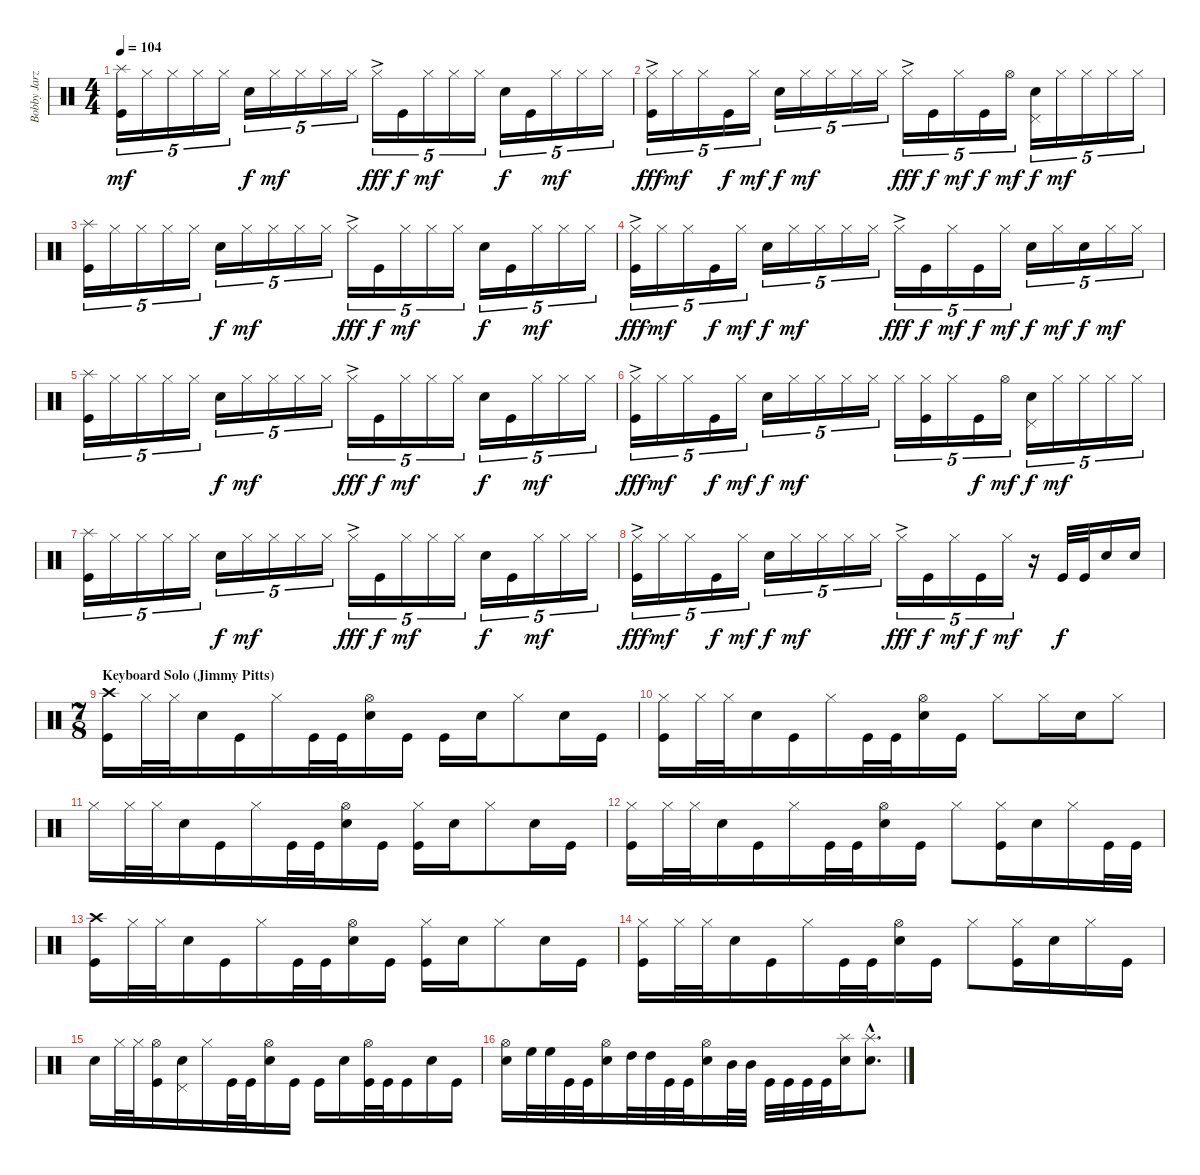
\track ("Bobby Jarzombek" "Bobby Jarz") {instrument percussion}
\staff {score}
\articulation defaults
\ts (4 4)
\tempo 104
\clef neutral
\ks c
("Splash (hit)" "Kick (hit)").16{tu (5 4) dy mf} "Hi-Hat (closed)".16{tu (5 4)} "Hi-Hat (closed)".16{tu (5 4)} "Hi-Hat (closed)".16{tu (5 4)} "Hi-Hat (closed)".16{tu (5 4)} "Electric Snare (hit)".16{tu (5 4) dy f} "Hi-Hat (closed)".16{tu (5 4) dy mf} "Hi-Hat (closed)".16{tu (5 4)} "Hi-Hat (closed)".16{tu (5 4)} "Hi-Hat (closed)".16{tu (5 4)} "Hi-Hat (closed)"{ac}.16{tu (5 4) dy fff} "Kick (hit)".16{tu (5 4) dy f} "Hi-Hat (closed)".16{tu (5 4) dy mf} "Hi-Hat (closed)".16{tu (5 4)} "Hi-Hat (closed)".16{tu (5 4)} "Electric Snare (hit)".16{tu (5 4) dy f} "Kick (hit)".16{tu (5 4)} "Hi-Hat (closed)".16{tu (5 4) dy mf} "Hi-Hat (closed)".16{tu (5 4)} "Hi-Hat (closed)".16{tu (5 4)} |
("Hi-Hat (closed)"{ac} "Kick (hit)").16{tu (5 4) dy fff} "Hi-Hat (closed)".16{tu (5 4) dy mf} "Hi-Hat (closed)".16{tu (5 4)} "Kick (hit)".16{tu (5 4) dy f} "Hi-Hat (closed)".16{tu (5 4) dy mf} "Electric Snare (hit)".16{tu (5 4) dy f} "Hi-Hat (closed)".16{tu (5 4) dy mf} "Hi-Hat (closed)".16{tu (5 4)} "Hi-Hat (closed)".16{tu (5 4)} "Hi-Hat (closed)".16{tu (5 4)} "Hi-Hat (closed)"{ac}.16{tu (5 4) dy fff} "Kick (hit)".16{tu (5 4) dy f} "Hi-Hat (closed)".16{tu (5 4) dy mf} "Kick (hit)".16{tu (5 4) dy f} "Hi-Hat (open)".16{tu (5 4) dy mf} ("Electric Snare (hit)" "Pedal Hi-Hat (hit)").16{tu (5 4) dy f} "Hi-Hat (closed)".16{tu (5 4) dy mf} "Hi-Hat (closed)".16{tu (5 4)} "Hi-Hat (closed)".16{tu (5 4)} "Hi-Hat (closed)".16{tu (5 4)} |
("Splash (hit)" "Kick (hit)").16{tu (5 4)} "Hi-Hat (closed)".16{tu (5 4)} "Hi-Hat (closed)".16{tu (5 4)} "Hi-Hat (closed)".16{tu (5 4)} "Hi-Hat (closed)".16{tu (5 4)} "Electric Snare (hit)".16{tu (5 4) dy f} "Hi-Hat (closed)".16{tu (5 4) dy mf} "Hi-Hat (closed)".16{tu (5 4)} "Hi-Hat (closed)".16{tu (5 4)} "Hi-Hat (closed)".16{tu (5 4)} "Hi-Hat (closed)"{ac}.16{tu (5 4) dy fff} "Kick (hit)".16{tu (5 4) dy f} "Hi-Hat (closed)".16{tu (5 4) dy mf} "Hi-Hat (closed)".16{tu (5 4)} "Hi-Hat (closed)".16{tu (5 4)} "Electric Snare (hit)".16{tu (5 4) dy f} "Kick (hit)".16{tu (5 4)} "Hi-Hat (closed)".16{tu (5 4) dy mf} "Hi-Hat (closed)".16{tu (5 4)} "Hi-Hat (closed)".16{tu (5 4)} |
("Hi-Hat (closed)"{ac} "Kick (hit)").16{tu (5 4) dy fff} "Hi-Hat (closed)".16{tu (5 4) dy mf} "Hi-Hat (closed)".16{tu (5 4)} "Kick (hit)".16{tu (5 4) dy f} "Hi-Hat (closed)".16{tu (5 4) dy mf} "Electric Snare (hit)".16{tu (5 4) dy f} "Hi-Hat (closed)".16{tu (5 4) dy mf} "Hi-Hat (closed)".16{tu (5 4)} "Hi-Hat (closed)".16{tu (5 4)} "Hi-Hat (closed)".16{tu (5 4)} "Hi-Hat (closed)"{ac}.16{tu (5 4) dy fff} "Kick (hit)".16{tu (5 4) dy f} "Hi-Hat (closed)".16{tu (5 4) dy mf} "Kick (hit)".16{tu (5 4) dy f} "Hi-Hat (closed)".16{tu (5 4) dy mf} "Electric Snare (hit)".16{tu (5 4) dy f} "Hi-Hat (closed)".16{tu (5 4) dy mf} "Electric Snare (hit)".16{tu (5 4) dy f} "Hi-Hat (closed)".16{tu (5 4) dy mf} "Hi-Hat (closed)".16{tu (5 4)} |
("Splash (hit)" "Kick (hit)").16{tu (5 4)} "Hi-Hat (closed)".16{tu (5 4)} "Hi-Hat (closed)".16{tu (5 4)} "Hi-Hat (closed)".16{tu (5 4)} "Hi-Hat (closed)".16{tu (5 4)} "Electric Snare (hit)".16{tu (5 4) dy f} "Hi-Hat (closed)".16{tu (5 4) dy mf} "Hi-Hat (closed)".16{tu (5 4)} "Hi-Hat (closed)".16{tu (5 4)} "Hi-Hat (closed)".16{tu (5 4)} "Hi-Hat (closed)"{ac}.16{tu (5 4) dy fff} "Kick (hit)".16{tu (5 4) dy f} "Hi-Hat (closed)".16{tu (5 4) dy mf} "Hi-Hat (closed)".16{tu (5 4)} "Hi-Hat (closed)".16{tu (5 4)} "Electric Snare (hit)".16{tu (5 4) dy f} "Kick (hit)".16{tu (5 4)} "Hi-Hat (closed)".16{tu (5 4) dy mf} "Hi-Hat (closed)".16{tu (5 4)} "Hi-Hat (closed)".16{tu (5 4)} |
("Hi-Hat (closed)"{ac} "Kick (hit)").16{tu (5 4) dy fff} "Hi-Hat (closed)".16{tu (5 4) dy mf} "Hi-Hat (closed)".16{tu (5 4)} "Kick (hit)".16{tu (5 4) dy f} "Hi-Hat (closed)".16{tu (5 4) dy mf} "Electric Snare (hit)".16{tu (5 4) dy f} "Hi-Hat (closed)".16{tu (5 4) dy mf} "Hi-Hat (closed)".16{tu (5 4)} "Hi-Hat (closed)".16{tu (5 4)} "Hi-Hat (closed)".16{tu (5 4)} "Hi-Hat (closed)".16{tu (5 4)} ("Hi-Hat (closed)" "Kick (hit)").16{tu (5 4)} "Hi-Hat (closed)".16{tu (5 4)} "Kick (hit)".16{tu (5 4) dy f} "Hi-Hat (open)".16{tu (5 4) dy mf} ("Electric Snare (hit)" "Pedal Hi-Hat (hit)").16{tu (5 4) dy f} "Hi-Hat (closed)".16{tu (5 4) dy mf} "Hi-Hat (closed)".16{tu (5 4)} "Hi-Hat (closed)".16{tu (5 4)} "Hi-Hat (closed)".16{tu (5 4)} |
("Splash (hit)" "Kick (hit)").16{tu (5 4)} "Hi-Hat (closed)".16{tu (5 4)} "Hi-Hat (closed)".16{tu (5 4)} "Hi-Hat (closed)".16{tu (5 4)} "Hi-Hat (closed)".16{tu (5 4)} "Electric Snare (hit)".16{tu (5 4) dy f} "Hi-Hat (closed)".16{tu (5 4) dy mf} "Hi-Hat (closed)".16{tu (5 4)} "Hi-Hat (closed)".16{tu (5 4)} "Hi-Hat (closed)".16{tu (5 4)} "Hi-Hat (closed)"{ac}.16{tu (5 4) dy fff} "Kick (hit)".16{tu (5 4) dy f} "Hi-Hat (closed)".16{tu (5 4) dy mf} "Hi-Hat (closed)".16{tu (5 4)} "Hi-Hat (closed)".16{tu (5 4)} "Electric Snare (hit)".16{tu (5 4) dy f} "Kick (hit)".16{tu (5 4)} "Hi-Hat (closed)".16{tu (5 4) dy mf} "Hi-Hat (closed)".16{tu (5 4)} "Hi-Hat (closed)".16{tu (5 4)} |
("Hi-Hat (closed)"{ac} "Kick (hit)").16{tu (5 4) dy fff} "Hi-Hat (closed)".16{tu (5 4) dy mf} "Hi-Hat (closed)".16{tu (5 4)} "Kick (hit)".16{tu (5 4) dy f} "Hi-Hat (closed)".16{tu (5 4) dy mf} "Electric Snare (hit)".16{tu (5 4) dy f} "Hi-Hat (closed)".16{tu (5 4) dy mf} "Hi-Hat (closed)".16{tu (5 4)} "Hi-Hat (closed)".16{tu (5 4)} "Hi-Hat (closed)".16{tu (5 4)} "Hi-Hat (closed)"{ac}.16{tu (5 4) dy fff} "Kick (hit)".16{tu (5 4) dy f} "Hi-Hat (closed)".16{tu (5 4) dy mf} "Kick (hit)".16{tu (5 4) dy f} "Hi-Hat (closed)".16{tu (5 4) dy mf} r.16 "Kick (hit)".32{dy f} "Kick (hit)".32 "Electric Snare (hit)".16 "Electric Snare (hit)".16 |
\ts (7 8)
\section ("" "Keyboard Solo (Jimmy Pitts)")
("Crash high (hit)" "Kick (hit)").16 "Hi-Hat (closed)".32 "Hi-Hat (closed)".32 "Electric Snare (hit)".16 "Kick (hit)".16 "Hi-Hat (closed)".16 "Kick (hit)".32 "Kick (hit)".32 ("Hi-Hat (open)" "Electric Snare (hit)").16 "Kick (hit)".16 "Kick (hit)".16 "Electric Snare (hit)".16 "Hi-Hat (closed)".8 "Electric Snare (hit)".16 "Kick (hit)".16 |
("Hi-Hat (closed)" "Kick (hit)").16 "Hi-Hat (closed)".32 "Hi-Hat (closed)".32 "Electric Snare (hit)".16 "Kick (hit)".16 "Hi-Hat (closed)".16 "Kick (hit)".32 "Kick (hit)".32 ("Hi-Hat (open)" "Electric Snare (hit)").16 "Kick (hit)".16 "Hi-Hat (closed)".8 "Hi-Hat (closed)".16 "Electric Snare (hit)".16 "Hi-Hat (closed)".8 |
"Hi-Hat (closed)".16 "Hi-Hat (closed)".32 "Hi-Hat (closed)".32 "Electric Snare (hit)".16 "Kick (hit)".16 "Hi-Hat (closed)".16 "Kick (hit)".32 "Kick (hit)".32 ("Hi-Hat (open)" "Electric Snare (hit)").16 "Kick (hit)".16 ("Hi-Hat (closed)" "Kick (hit)").16 "Electric Snare (hit)".16 "Hi-Hat (closed)".8 "Electric Snare (hit)".16 "Kick (hit)".16 |
("Hi-Hat (closed)" "Kick (hit)").16 "Hi-Hat (closed)".32 "Hi-Hat (closed)".32 "Electric Snare (hit)".16 "Kick (hit)".16 "Hi-Hat (closed)".16 "Kick (hit)".32 "Kick (hit)".32 ("Hi-Hat (open)" "Electric Snare (hit)").16 "Kick (hit)".16 "Hi-Hat (closed)".8 ("Hi-Hat (closed)" "Kick (hit)").16 "Electric Snare (hit)".16 "Hi-Hat (closed)".16 "Kick (hit)".32 "Kick (hit)".32 |
("Crash high (hit)" "Kick (hit)").16 "Hi-Hat (closed)".32 "Hi-Hat (closed)".32 "Electric Snare (hit)".16 "Kick (hit)".16 "Hi-Hat (closed)".16 "Kick (hit)".32 "Kick (hit)".32 ("Hi-Hat (open)" "Electric Snare (hit)").16 "Kick (hit)".16 ("Hi-Hat (closed)" "Kick (hit)").16 "Electric Snare (hit)".16 "Hi-Hat (closed)".8 "Electric Snare (hit)".16 "Kick (hit)".16 |
("Hi-Hat (closed)" "Kick (hit)").16 "Hi-Hat (closed)".32 "Hi-Hat (closed)".32 "Electric Snare (hit)".16 "Kick (hit)".16 "Hi-Hat (closed)".16 "Kick (hit)".32 "Kick (hit)".32 ("Hi-Hat (open)" "Electric Snare (hit)").16 "Kick (hit)".16 "Hi-Hat (closed)".8 ("Hi-Hat (closed)" "Kick (hit)").16 "Electric Snare (hit)".16 "Hi-Hat (closed)".16 "Kick (hit)".16 |
"Electric Snare (hit)".16 "Hi-Hat (closed)".32 "Hi-Hat (closed)".32 ("Hi-Hat (open)" "Kick (hit)").16 ("Electric Snare (hit)" "Pedal Hi-Hat (hit)").16 "Hi-Hat (closed)".16 "Kick (hit)".32 "Kick (hit)".32 ("Hi-Hat (open)" "Electric Snare (hit)").16 "Kick (hit)".16 "Kick (hit)".16 "Electric Snare (hit)".16 ("Hi-Hat (open)" "Kick (hit)").32 "Kick (hit)".32 "Kick (hit)".16 "Electric Snare (hit)".16 "Kick (hit)".16 |
("Hi-Hat (open)" "Electric Snare (hit)").16 "High Floor Tom (hit)".32 "High Floor Tom (hit)".32 "Kick (hit)".32 "Kick (hit)".32 ("Hi-Hat (open)" "Electric Snare (hit)").16 "High Tom (hit)".32 "High Tom (hit)".32 "Kick (hit)".32 "Kick (hit)".32 ("Hi-Hat (open)" "Electric Snare (hit)").16 "Mid Tom (hit)".32 "Mid Tom (hit)".32 "Kick (hit)".32 "Kick (hit)".32 "Kick (hit)".32 "Kick (hit)".32 ("Splash (hit)" "Electric Snare (hit)").16 ("Splash (hit)"{hac} "Electric Snare (hit)"{hac}).8{d}
